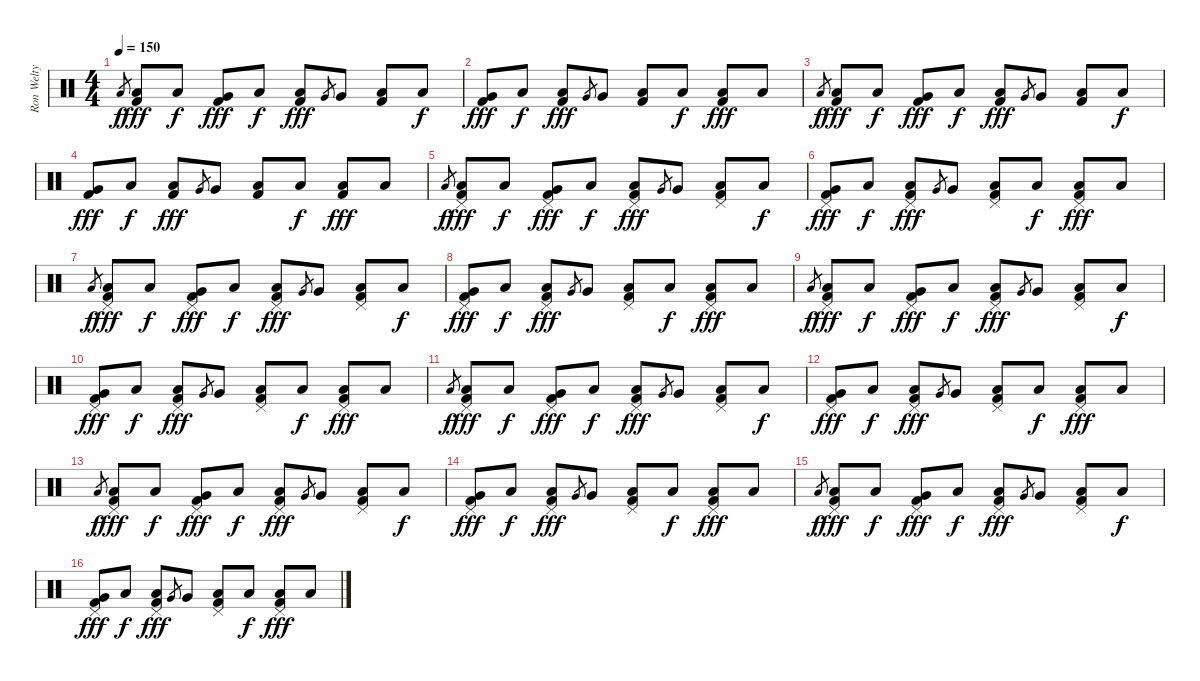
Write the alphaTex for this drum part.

\track ("Ron Welty" "Ron Welty") {instrument percussion}
\staff {score}
\articulation defaults
\ts (4 4)
\tempo 150
\clef neutral
\ks c "Low Floor Tom (hit)".8{gr dy f}
("Low Floor Tom (hit)" "Kick (hit) 2").8{dy fff} "Low Floor Tom (hit)".8{dy f} ("Very Low Tom (hit)" "Kick (hit) 2").8{dy fff} "Low Floor Tom (hit)".8{dy f} ("Low Floor Tom (hit)" "Kick (hit) 2").8{dy fff} "Very Low Tom (hit)".8{gr} "Very Low Tom (hit)".8 ("Low Floor Tom (hit)" "Kick (hit) 2").8 "Low Floor Tom (hit)".8{dy f} |
("Very Low Tom (hit)" "Kick (hit) 2").8{dy fff} "Low Floor Tom (hit)".8{dy f} ("Low Floor Tom (hit)" "Kick (hit) 2").8{dy fff} "Very Low Tom (hit)".8{gr} "Very Low Tom (hit)".8 ("Low Floor Tom (hit)" "Kick (hit) 2").8 "Low Floor Tom (hit)".8{dy f} ("Low Floor Tom (hit)" "Kick (hit) 2").8{dy fff} "Low Floor Tom (hit)".8 |
"Low Floor Tom (hit)".8{gr dy f} ("Low Floor Tom (hit)" "Kick (hit) 2").8{dy fff} "Low Floor Tom (hit)".8{dy f} ("Very Low Tom (hit)" "Kick (hit) 2").8{dy fff} "Low Floor Tom (hit)".8{dy f} ("Low Floor Tom (hit)" "Kick (hit) 2").8{dy fff} "Very Low Tom (hit)".8{gr} "Very Low Tom (hit)".8 ("Low Floor Tom (hit)" "Kick (hit) 2").8 "Low Floor Tom (hit)".8{dy f} |
("Very Low Tom (hit)" "Kick (hit) 2").8{dy fff} "Low Floor Tom (hit)".8{dy f} ("Low Floor Tom (hit)" "Kick (hit) 2").8{dy fff} "Very Low Tom (hit)".8{gr} "Very Low Tom (hit)".8 ("Low Floor Tom (hit)" "Kick (hit) 2").8 "Low Floor Tom (hit)".8{dy f} ("Low Floor Tom (hit)" "Kick (hit) 2").8{dy fff} "Low Floor Tom (hit)".8 |
"Low Floor Tom (hit)".8{gr dy f} ("Low Floor Tom (hit)" "Pedal Hi-Hat (hit)" "Kick (hit) 2").8{dy fff} "Low Floor Tom (hit)".8{dy f} ("Very Low Tom (hit)" "Pedal Hi-Hat (hit)" "Kick (hit) 2").8{dy fff} "Low Floor Tom (hit)".8{dy f} ("Low Floor Tom (hit)" "Pedal Hi-Hat (hit)" "Kick (hit) 2").8{dy fff} "Very Low Tom (hit)".8{gr} "Very Low Tom (hit)".8 ("Low Floor Tom (hit)" "Pedal Hi-Hat (hit)" "Kick (hit) 2").8 "Low Floor Tom (hit)".8{dy f} |
("Very Low Tom (hit)" "Pedal Hi-Hat (hit)" "Kick (hit) 2").8{dy fff} "Low Floor Tom (hit)".8{dy f} ("Low Floor Tom (hit)" "Pedal Hi-Hat (hit)" "Kick (hit) 2").8{dy fff} "Very Low Tom (hit)".8{gr} "Very Low Tom (hit)".8 ("Low Floor Tom (hit)" "Pedal Hi-Hat (hit)" "Kick (hit) 2").8 "Low Floor Tom (hit)".8{dy f} ("Low Floor Tom (hit)" "Pedal Hi-Hat (hit)" "Kick (hit) 2").8{dy fff} "Low Floor Tom (hit)".8 |
"Low Floor Tom (hit)".8{gr dy f} ("Low Floor Tom (hit)" "Pedal Hi-Hat (hit)" "Kick (hit) 2").8{dy fff} "Low Floor Tom (hit)".8{dy f} ("Very Low Tom (hit)" "Pedal Hi-Hat (hit)" "Kick (hit) 2").8{dy fff} "Low Floor Tom (hit)".8{dy f} ("Low Floor Tom (hit)" "Pedal Hi-Hat (hit)" "Kick (hit) 2").8{dy fff} "Very Low Tom (hit)".8{gr} "Very Low Tom (hit)".8 ("Low Floor Tom (hit)" "Pedal Hi-Hat (hit)" "Kick (hit) 2").8 "Low Floor Tom (hit)".8{dy f} |
("Very Low Tom (hit)" "Pedal Hi-Hat (hit)" "Kick (hit) 2").8{dy fff} "Low Floor Tom (hit)".8{dy f} ("Low Floor Tom (hit)" "Pedal Hi-Hat (hit)" "Kick (hit) 2").8{dy fff} "Very Low Tom (hit)".8{gr} "Very Low Tom (hit)".8 ("Low Floor Tom (hit)" "Pedal Hi-Hat (hit)" "Kick (hit) 2").8 "Low Floor Tom (hit)".8{dy f} ("Low Floor Tom (hit)" "Pedal Hi-Hat (hit)" "Kick (hit) 2").8{dy fff} "Low Floor Tom (hit)".8 |
"Low Floor Tom (hit)".8{gr dy f} ("Low Floor Tom (hit)" "Pedal Hi-Hat (hit)" "Kick (hit) 2").8{dy fff} "Low Floor Tom (hit)".8{dy f} ("Very Low Tom (hit)" "Pedal Hi-Hat (hit)" "Kick (hit) 2").8{dy fff} "Low Floor Tom (hit)".8{dy f} ("Low Floor Tom (hit)" "Pedal Hi-Hat (hit)" "Kick (hit) 2").8{dy fff} "Very Low Tom (hit)".8{gr} "Very Low Tom (hit)".8 ("Low Floor Tom (hit)" "Pedal Hi-Hat (hit)" "Kick (hit) 2").8 "Low Floor Tom (hit)".8{dy f} |
("Very Low Tom (hit)" "Pedal Hi-Hat (hit)" "Kick (hit) 2").8{dy fff} "Low Floor Tom (hit)".8{dy f} ("Low Floor Tom (hit)" "Pedal Hi-Hat (hit)" "Kick (hit) 2").8{dy fff} "Very Low Tom (hit)".8{gr} "Very Low Tom (hit)".8 ("Low Floor Tom (hit)" "Pedal Hi-Hat (hit)" "Kick (hit) 2").8 "Low Floor Tom (hit)".8{dy f} ("Low Floor Tom (hit)" "Pedal Hi-Hat (hit)" "Kick (hit) 2").8{dy fff} "Low Floor Tom (hit)".8 |
"Low Floor Tom (hit)".8{gr dy f} ("Low Floor Tom (hit)" "Pedal Hi-Hat (hit)" "Kick (hit) 2").8{dy fff} "Low Floor Tom (hit)".8{dy f} ("Very Low Tom (hit)" "Pedal Hi-Hat (hit)" "Kick (hit) 2").8{dy fff} "Low Floor Tom (hit)".8{dy f} ("Low Floor Tom (hit)" "Pedal Hi-Hat (hit)" "Kick (hit) 2").8{dy fff} "Very Low Tom (hit)".8{gr} "Very Low Tom (hit)".8 ("Low Floor Tom (hit)" "Pedal Hi-Hat (hit)" "Kick (hit) 2").8 "Low Floor Tom (hit)".8{dy f} |
("Very Low Tom (hit)" "Pedal Hi-Hat (hit)" "Kick (hit) 2").8{dy fff} "Low Floor Tom (hit)".8{dy f} ("Low Floor Tom (hit)" "Pedal Hi-Hat (hit)" "Kick (hit) 2").8{dy fff} "Very Low Tom (hit)".8{gr} "Very Low Tom (hit)".8 ("Low Floor Tom (hit)" "Pedal Hi-Hat (hit)" "Kick (hit) 2").8 "Low Floor Tom (hit)".8{dy f} ("Low Floor Tom (hit)" "Pedal Hi-Hat (hit)" "Kick (hit) 2").8{dy fff} "Low Floor Tom (hit)".8 |
"Low Floor Tom (hit)".8{gr dy f} ("Low Floor Tom (hit)" "Pedal Hi-Hat (hit)" "Kick (hit) 2").8{dy fff} "Low Floor Tom (hit)".8{dy f} ("Very Low Tom (hit)" "Pedal Hi-Hat (hit)" "Kick (hit) 2").8{dy fff} "Low Floor Tom (hit)".8{dy f} ("Low Floor Tom (hit)" "Pedal Hi-Hat (hit)" "Kick (hit) 2").8{dy fff} "Very Low Tom (hit)".8{gr} "Very Low Tom (hit)".8 ("Low Floor Tom (hit)" "Pedal Hi-Hat (hit)" "Kick (hit) 2").8 "Low Floor Tom (hit)".8{dy f} |
("Very Low Tom (hit)" "Pedal Hi-Hat (hit)" "Kick (hit) 2").8{dy fff} "Low Floor Tom (hit)".8{dy f} ("Low Floor Tom (hit)" "Pedal Hi-Hat (hit)" "Kick (hit) 2").8{dy fff} "Very Low Tom (hit)".8{gr} "Very Low Tom (hit)".8 ("Low Floor Tom (hit)" "Pedal Hi-Hat (hit)" "Kick (hit) 2").8 "Low Floor Tom (hit)".8{dy f} ("Low Floor Tom (hit)" "Pedal Hi-Hat (hit)" "Kick (hit) 2").8{dy fff} "Low Floor Tom (hit)".8 |
"Low Floor Tom (hit)".8{gr dy f} ("Low Floor Tom (hit)" "Pedal Hi-Hat (hit)" "Kick (hit) 2").8{dy fff} "Low Floor Tom (hit)".8{dy f} ("Very Low Tom (hit)" "Pedal Hi-Hat (hit)" "Kick (hit) 2").8{dy fff} "Low Floor Tom (hit)".8{dy f} ("Low Floor Tom (hit)" "Pedal Hi-Hat (hit)" "Kick (hit) 2").8{dy fff} "Very Low Tom (hit)".8{gr} "Very Low Tom (hit)".8 ("Low Floor Tom (hit)" "Pedal Hi-Hat (hit)" "Kick (hit) 2").8 "Low Floor Tom (hit)".8{dy f} |
("Very Low Tom (hit)" "Pedal Hi-Hat (hit)" "Kick (hit) 2").8{dy fff} "Low Floor Tom (hit)".8{dy f} ("Low Floor Tom (hit)" "Pedal Hi-Hat (hit)" "Kick (hit) 2").8{dy fff} "Very Low Tom (hit)".8{gr} "Very Low Tom (hit)".8 ("Low Floor Tom (hit)" "Pedal Hi-Hat (hit)" "Kick (hit) 2").8 "Low Floor Tom (hit)".8{dy f} ("Low Floor Tom (hit)" "Pedal Hi-Hat (hit)" "Kick (hit) 2").8{dy fff} "Low Floor Tom (hit)".8
